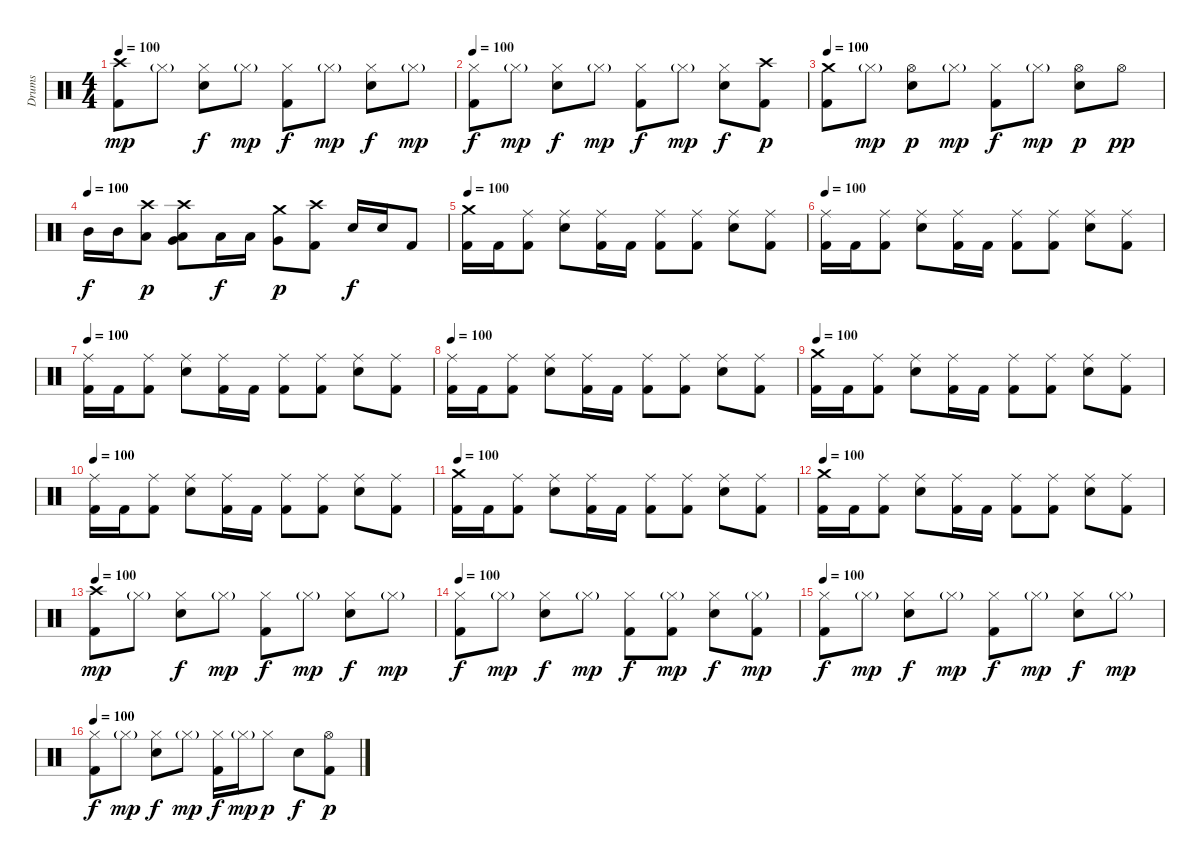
\track ("Drums" "Drums") {instrument percussion}
\staff {score}
\articulation defaults
\ts (4 4)
\tempo 100
\clef neutral
\ks c
("Crash high (hit)" "Kick (hit) 2").8{dy mp} "Hi-Hat (closed)"{g}.8 ("Electric Snare (hit)" "Hi-Hat (closed)").8{dy f} "Hi-Hat (closed)"{g}.8{dy mp} ("Hi-Hat (closed)" "Kick (hit) 2").8{dy f} "Hi-Hat (closed)"{g}.8{dy mp} ("Electric Snare (hit)" "Hi-Hat (closed)").8{dy f} "Hi-Hat (closed)"{g}.8{dy mp} |
\tempo 100
("Hi-Hat (closed)" "Kick (hit) 2").8{dy f} "Hi-Hat (closed)"{g}.8{dy mp} ("Electric Snare (hit)" "Hi-Hat (closed)").8{dy f} "Hi-Hat (closed)"{g}.8{dy mp} ("Hi-Hat (closed)" "Kick (hit) 2").8{dy f} "Hi-Hat (closed)"{g}.8{dy mp} ("Electric Snare (hit)" "Hi-Hat (closed)").8{dy f} ("Crash high (hit)" "Kick (hit) 2").8{dy p} |
\tempo 100
("Crash medium (hit)" "Kick (hit) 2").8 "Hi-Hat (closed)"{g}.8{dy mp} ("Electric Snare (hit)" "Hi-Hat (open)").8{dy p} "Hi-Hat (closed)"{g}.8{dy mp} ("Hi-Hat (closed)" "Kick (hit) 2").8{dy f} "Hi-Hat (closed)"{g}.8{dy mp} ("Electric Snare (hit)" "Hi-Hat (open)").8{dy p} "Hi-Hat (open)".8{dy pp} |
\tempo (100)
"Mid Tom (hit)".16{dy f} "Mid Tom (hit)".16 ("Crash high (hit)" "Low Tom (hit)").8{dy p} ("Crash high (hit)" "Low Tom (hit)" "Very Low Tom (hit)").8 "Low Tom (hit)".16{dy f} "Low Tom (hit)".16 ("Crash medium (hit)" "Very Low Tom (hit)").8{dy p} ("Crash high (hit)" "Kick (hit) 2").8 "Electric Snare (hit)".16{dy f} "Electric Snare (hit)".16 "Kick (hit) 2".8 |
\tempo 100
("Crash medium (hit)" "Kick (hit) 2").16 "Kick (hit) 2".16 ("Ride (middle)" "Kick (hit) 2").8 ("Ride (middle)" "Electric Snare (hit)").8 ("Ride (middle)" "Kick (hit) 2").16 "Kick (hit) 2".16 ("Ride (middle)" "Kick (hit) 2").8 ("Ride (middle)" "Kick (hit) 2").8 ("Ride (middle)" "Electric Snare (hit)").8 ("Ride (middle)" "Kick (hit) 2").8 |
\tempo 100
("Ride (middle)" "Kick (hit) 2").16 "Kick (hit) 2".16 ("Ride (middle)" "Kick (hit) 2").8 ("Ride (middle)" "Electric Snare (hit)").8 ("Ride (middle)" "Kick (hit) 2").16 "Kick (hit) 2".16 ("Ride (middle)" "Kick (hit) 2").8 ("Ride (middle)" "Kick (hit) 2").8 ("Ride (middle)" "Electric Snare (hit)").8 ("Ride (middle)" "Kick (hit) 2").8 |
\tempo 100
("Ride (middle)" "Kick (hit) 2").16 "Kick (hit) 2".16 ("Ride (middle)" "Kick (hit) 2").8 ("Ride (middle)" "Electric Snare (hit)").8 ("Ride (middle)" "Kick (hit) 2").16 "Kick (hit) 2".16 ("Ride (middle)" "Kick (hit) 2").8 ("Ride (middle)" "Kick (hit) 2").8 ("Ride (middle)" "Electric Snare (hit)").8 ("Ride (middle)" "Kick (hit) 2").8 |
\tempo 100
("Ride (middle)" "Kick (hit) 2").16 "Kick (hit) 2".16 ("Ride (middle)" "Kick (hit) 2").8 ("Ride (middle)" "Electric Snare (hit)").8 ("Ride (middle)" "Kick (hit) 2").16 "Kick (hit) 2".16 ("Ride (middle)" "Kick (hit) 2").8 ("Ride (middle)" "Kick (hit) 2").8 ("Ride (middle)" "Electric Snare (hit)").8 ("Ride (middle)" "Kick (hit) 2").8 |
\tempo 100
("Crash medium (hit)" "Kick (hit) 2").16 "Kick (hit) 2".16 ("Ride (middle)" "Kick (hit) 2").8 ("Ride (middle)" "Electric Snare (hit)").8 ("Ride (middle)" "Kick (hit) 2").16 "Kick (hit) 2".16 ("Ride (middle)" "Kick (hit) 2").8 ("Ride (middle)" "Kick (hit) 2").8 ("Ride (middle)" "Electric Snare (hit)").8 ("Ride (middle)" "Kick (hit) 2").8 |
\tempo 100
("Ride (middle)" "Kick (hit) 2").16 "Kick (hit) 2".16 ("Ride (middle)" "Kick (hit) 2").8 ("Ride (middle)" "Electric Snare (hit)").8 ("Ride (middle)" "Kick (hit) 2").16 "Kick (hit) 2".16 ("Ride (middle)" "Kick (hit) 2").8 ("Ride (middle)" "Kick (hit) 2").8 ("Ride (middle)" "Electric Snare (hit)").8 ("Ride (middle)" "Kick (hit) 2").8 |
\tempo 100
("Crash medium (hit)" "Kick (hit) 2").16 "Kick (hit) 2".16 ("Ride (middle)" "Kick (hit) 2").8 ("Ride (middle)" "Electric Snare (hit)").8 ("Ride (middle)" "Kick (hit) 2").16 "Kick (hit) 2".16 ("Ride (middle)" "Kick (hit) 2").8 ("Ride (middle)" "Kick (hit) 2").8 ("Ride (middle)" "Electric Snare (hit)").8 ("Ride (middle)" "Kick (hit) 2").8 |
\tempo 100
("Crash medium (hit)" "Kick (hit) 2").16 "Kick (hit) 2".16 ("Ride (middle)" "Kick (hit) 2").8 ("Ride (middle)" "Electric Snare (hit)").8 ("Ride (middle)" "Kick (hit) 2").16 "Kick (hit) 2".16 ("Ride (middle)" "Kick (hit) 2").8 ("Ride (middle)" "Kick (hit) 2").8 ("Ride (middle)" "Electric Snare (hit)").8 ("Ride (middle)" "Kick (hit) 2").8 |
\tempo 100
("Crash high (hit)" "Kick (hit) 2").8{dy mp} "Hi-Hat (closed)"{g}.8 ("Electric Snare (hit)" "Hi-Hat (closed)").8{dy f} "Hi-Hat (closed)"{g}.8{dy mp} ("Hi-Hat (closed)" "Kick (hit) 2").8{dy f} "Hi-Hat (closed)"{g}.8{dy mp} ("Electric Snare (hit)" "Hi-Hat (closed)").8{dy f} "Hi-Hat (closed)"{g}.8{dy mp} |
\tempo 100
("Hi-Hat (closed)" "Kick (hit) 2").8{dy f} "Hi-Hat (closed)"{g}.8{dy mp} ("Electric Snare (hit)" "Hi-Hat (closed)").8{dy f} "Hi-Hat (closed)"{g}.8{dy mp} ("Hi-Hat (closed)" "Kick (hit) 2").8{dy f} ("Hi-Hat (closed)"{g} "Kick (hit) 2").8{dy mp} ("Electric Snare (hit)" "Hi-Hat (closed)").8{dy f} ("Hi-Hat (closed)"{g} "Kick (hit) 2").8{dy mp} |
\tempo 100
("Hi-Hat (closed)" "Kick (hit) 2").8{dy f} "Hi-Hat (closed)"{g}.8{dy mp} ("Electric Snare (hit)" "Hi-Hat (closed)").8{dy f} "Hi-Hat (closed)"{g}.8{dy mp} ("Hi-Hat (closed)" "Kick (hit) 2").8{dy f} "Hi-Hat (closed)"{g}.8{dy mp} ("Electric Snare (hit)" "Hi-Hat (closed)").8{dy f} "Hi-Hat (closed)"{g}.8{dy mp} |
\tempo 100
("Hi-Hat (closed)" "Kick (hit) 2").8{dy f} "Hi-Hat (closed)"{g}.8{dy mp} ("Electric Snare (hit)" "Hi-Hat (closed)").8{dy f} "Hi-Hat (closed)"{g}.8{dy mp} ("Hi-Hat (closed)" "Kick (hit) 2").16{dy f} "Hi-Hat (closed)"{g}.16{dy mp} "Hi-Hat (closed)".8{dy p} "Electric Snare (hit)".8{dy f} ("Hi-Hat (open)" "Kick (hit) 2").8{dy p}
